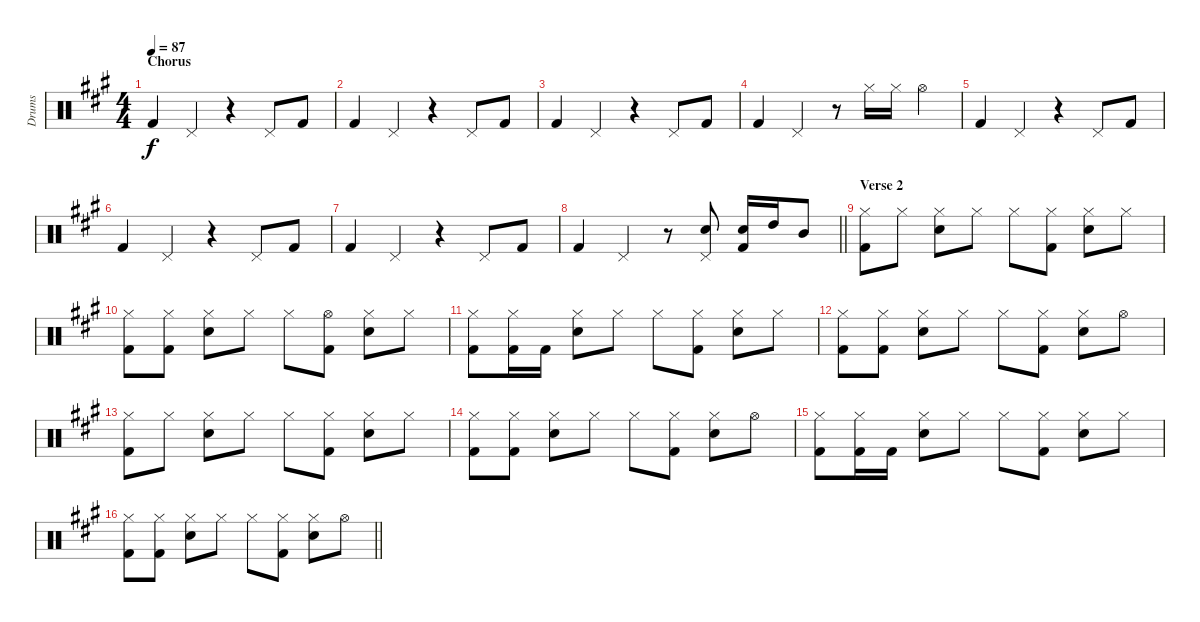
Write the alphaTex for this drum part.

\track ("Drums" "Drums") {instrument percussion}
\staff {score}
\articulation defaults
\ts (4 4)
\section ("" "Chorus")
\tempo 87
\clef neutral
\ks a "Kick (hit) 2".4{dy f} "Pedal Hi-Hat (hit)".4
r.4 "Pedal Hi-Hat (hit)".8 "Kick (hit) 2".8 |
"Kick (hit) 2".4 "Pedal Hi-Hat (hit)".4 r.4 "Pedal Hi-Hat (hit)".8 "Kick (hit) 2".8 |
"Kick (hit) 2".4 "Pedal Hi-Hat (hit)".4 r.4 "Pedal Hi-Hat (hit)".8 "Kick (hit) 2".8 |
"Kick (hit) 2".4 "Pedal Hi-Hat (hit)".4 r.8 "Hi-Hat (closed)".16 "Hi-Hat (closed)".16 "Hi-Hat (open)".4 |
"Kick (hit) 2".4 "Pedal Hi-Hat (hit)".4 r.4 "Pedal Hi-Hat (hit)".8 "Kick (hit) 2".8 |
"Kick (hit) 2".4 "Pedal Hi-Hat (hit)".4 r.4 "Pedal Hi-Hat (hit)".8 "Kick (hit) 2".8 |
"Kick (hit) 2".4 "Pedal Hi-Hat (hit)".4 r.4 "Pedal Hi-Hat (hit)".8 "Kick (hit) 2".8 |
\barLineRight lightlight "Kick (hit) 2".4 "Pedal Hi-Hat (hit)".4
r.8 ("Pedal Hi-Hat (hit)" "Electric Snare (hit)").8 ("Electric Snare (hit)" "Kick (hit) 2").16 "High Tom (hit)".16 "Mid Tom (hit)".8 |
\section ("" "Verse 2")
("Hi-Hat (closed)" "Kick (hit) 2").8 "Hi-Hat (closed)".8 ("Hi-Hat (closed)" "Electric Snare (hit)").8 "Hi-Hat (closed)".8 "Hi-Hat (closed)".8 ("Hi-Hat (closed)" "Kick (hit) 2").8 ("Hi-Hat (closed)" "Electric Snare (hit)").8 "Hi-Hat (closed)".8 |
("Hi-Hat (closed)" "Kick (hit) 2").8 ("Hi-Hat (closed)" "Kick (hit) 2").8 ("Hi-Hat (closed)" "Electric Snare (hit)").8 "Hi-Hat (closed)".8 "Hi-Hat (closed)".8 ("Hi-Hat (open)" "Kick (hit) 2").8 ("Hi-Hat (closed)" "Electric Snare (hit)").8 "Hi-Hat (closed)".8 |
("Hi-Hat (closed)" "Kick (hit) 2").8 ("Hi-Hat (closed)" "Kick (hit) 2").16 "Kick (hit) 2".16 ("Hi-Hat (closed)" "Electric Snare (hit)").8 "Hi-Hat (closed)".8 "Hi-Hat (closed)".8 ("Hi-Hat (closed)" "Kick (hit) 2").8 ("Hi-Hat (closed)" "Electric Snare (hit)").8 "Hi-Hat (closed)".8 |
("Hi-Hat (closed)" "Kick (hit) 2").8 ("Hi-Hat (closed)" "Kick (hit) 2").8 ("Hi-Hat (closed)" "Electric Snare (hit)").8 "Hi-Hat (closed)".8 "Hi-Hat (closed)".8 ("Hi-Hat (closed)" "Kick (hit) 2").8 ("Hi-Hat (closed)" "Electric Snare (hit)").8 "Hi-Hat (open)".8 |
("Hi-Hat (closed)" "Kick (hit) 2").8 "Hi-Hat (closed)".8 ("Hi-Hat (closed)" "Electric Snare (hit)").8 "Hi-Hat (closed)".8 "Hi-Hat (closed)".8 ("Hi-Hat (closed)" "Kick (hit) 2").8 ("Hi-Hat (closed)" "Electric Snare (hit)").8 "Hi-Hat (closed)".8 |
("Hi-Hat (closed)" "Kick (hit) 2").8 ("Hi-Hat (closed)" "Kick (hit) 2").8 ("Hi-Hat (closed)" "Electric Snare (hit)").8 "Hi-Hat (closed)".8 "Hi-Hat (closed)".8 ("Hi-Hat (closed)" "Kick (hit) 2").8 ("Hi-Hat (closed)" "Electric Snare (hit)").8 "Hi-Hat (open)".8 |
("Hi-Hat (closed)" "Kick (hit) 2").8 ("Hi-Hat (closed)" "Kick (hit) 2").16 "Kick (hit) 2".16 ("Hi-Hat (closed)" "Electric Snare (hit)").8 "Hi-Hat (closed)".8 "Hi-Hat (closed)".8 ("Hi-Hat (closed)" "Kick (hit) 2").8 ("Hi-Hat (closed)" "Electric Snare (hit)").8 "Hi-Hat (closed)".8 |
\barLineRight lightlight
("Hi-Hat (closed)" "Kick (hit) 2").8 ("Hi-Hat (closed)" "Kick (hit) 2").8 ("Hi-Hat (closed)" "Electric Snare (hit)").8 "Hi-Hat (closed)".8 "Hi-Hat (closed)".8 ("Hi-Hat (closed)" "Kick (hit) 2").8 ("Hi-Hat (closed)" "Electric Snare (hit)").8 "Hi-Hat (open)".8
